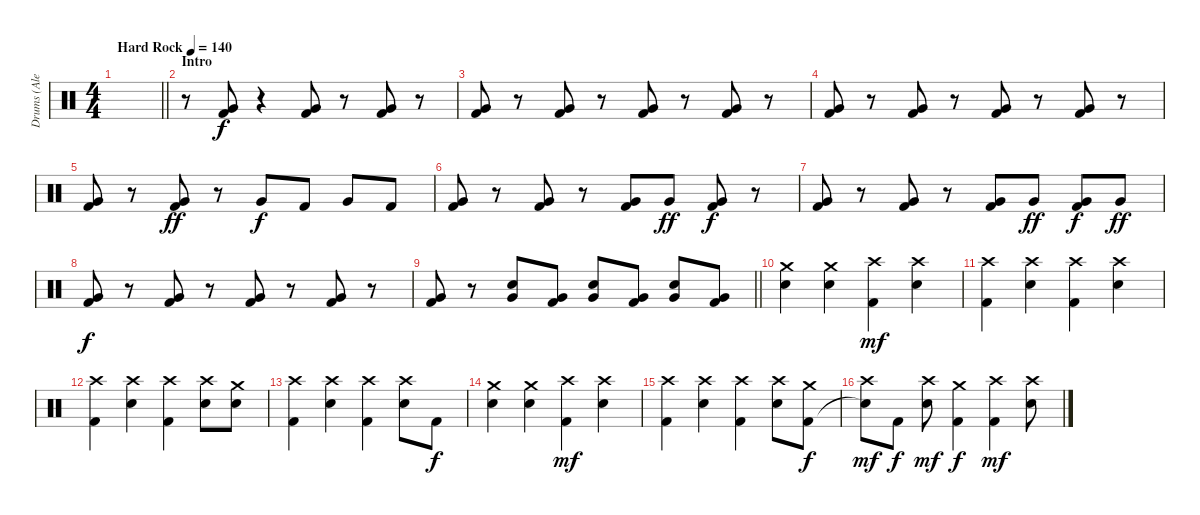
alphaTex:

\track ("Drums (Alex Van Halen)" "Drums (Ale") {instrument percussion}
\staff {score}
\articulation defaults
\ts (4 4)
\tempo (140 "Hard Rock")
\clef neutral
\barLineRight lightlight
\ks c
|
\section ("" "Intro")
r.8 ("Very Low Tom (hit)" "Kick (hit) 2").8 r.4 ("Very Low Tom (hit)" "Kick (hit) 2").8 r.8 ("Very Low Tom (hit)" "Kick (hit) 2").8 r.8 |
("Very Low Tom (hit)" "Kick (hit) 2").8 r.8 ("Very Low Tom (hit)" "Kick (hit) 2").8 r.8 ("Very Low Tom (hit)" "Kick (hit) 2").8 r.8 ("Very Low Tom (hit)" "Kick (hit) 2").8 r.8 |
("Very Low Tom (hit)" "Kick (hit) 2").8 r.8 ("Very Low Tom (hit)" "Kick (hit) 2").8 r.8 ("Very Low Tom (hit)" "Kick (hit) 2").8 r.8 ("Very Low Tom (hit)" "Kick (hit) 2").8 r.8 |
("Very Low Tom (hit)" "Kick (hit) 2").8 r.8 ("Very Low Tom (hit)" "Kick (hit) 2").8{dy ff} r.8 "Very Low Tom (hit)".8{dy f} "Kick (hit) 2".8 "Very Low Tom (hit)".8 "Kick (hit) 2".8 |
("Very Low Tom (hit)" "Kick (hit) 2").8 r.8 ("Very Low Tom (hit)" "Kick (hit) 2").8 r.8 ("Very Low Tom (hit)" "Kick (hit) 2").8 "Very Low Tom (hit)".8{dy ff} ("Very Low Tom (hit)" "Kick (hit) 2").8{dy f} r.8 |
("Very Low Tom (hit)" "Kick (hit) 2").8 r.8 ("Very Low Tom (hit)" "Kick (hit) 2").8 r.8 ("Very Low Tom (hit)" "Kick (hit) 2").8 "Very Low Tom (hit)".8{dy ff} ("Very Low Tom (hit)" "Kick (hit) 2").8{dy f} "Very Low Tom (hit)".8{dy ff} |
("Very Low Tom (hit)" "Kick (hit) 2").8{dy f} r.8 ("Very Low Tom (hit)" "Kick (hit) 2").8 r.8 ("Very Low Tom (hit)" "Kick (hit) 2").8 r.8 ("Very Low Tom (hit)" "Kick (hit) 2").8 r.8 |
\barLineRight lightlight
("Very Low Tom (hit)" "Kick (hit) 2").8 r.8 ("Very Low Tom (hit)" "Snare (hit) 2").8 ("Very Low Tom (hit)" "Kick (hit) 2").8 ("Very Low Tom (hit)" "Snare (hit) 2").8 ("Very Low Tom (hit)" "Kick (hit) 2").8 ("Very Low Tom (hit)" "Snare (hit) 2").8 ("Very Low Tom (hit)" "Kick (hit) 2").8 |
("Crash medium (hit)" "Snare (hit) 2").4 ("Crash medium (hit)" "Snare (hit) 2").4 ("Crash high (hit)" "Kick (hit) 2").4{dy mf} ("Crash high (hit)" "Snare (hit) 2").4 |
("Crash high (hit)" "Kick (hit) 2").4 ("Crash high (hit)" "Snare (hit) 2").4 ("Crash high (hit)" "Kick (hit) 2").4 ("Crash high (hit)" "Snare (hit) 2").4 |
("Crash high (hit)" "Kick (hit) 2").4 ("Crash high (hit)" "Snare (hit) 2").4 ("Crash high (hit)" "Kick (hit) 2").4 ("Crash high (hit)" "Snare (hit) 2").8 ("Crash medium (hit)" "Electric Snare (hit)").8 |
("Crash high (hit)" "Kick (hit) 2").4 ("Crash high (hit)" "Snare (hit) 2").4 ("Crash high (hit)" "Kick (hit) 2").4 ("Crash high (hit)" "Snare (hit) 2").8 "Kick (hit) 2".8{dy f} |
("Crash medium (hit)" "Snare (hit) 2").4 ("Crash medium (hit)" "Snare (hit) 2").4 ("Crash high (hit)" "Kick (hit) 2").4{dy mf} ("Crash high (hit)" "Snare (hit) 2").4 |
("Crash high (hit)" "Kick (hit) 2").4 ("Crash high (hit)" "Snare (hit) 2").4 ("Crash high (hit)" "Kick (hit) 2").4 ("Crash high (hit)" "Snare (hit) 2").8 ("Crash medium (hit)" "Kick (hit) 2").8{dy f} |
("Crash high (hit)" "Snare (hit)"{t}).8{dy mf} "Kick (hit) 2".8{dy f} ("Crash high (hit)" "Snare (hit) 2").8{dy mf} ("Crash medium (hit)" "Kick (hit) 2").4{dy f} ("Crash high (hit)" "Kick (hit) 2").4{dy mf} ("Crash high (hit)" "Snare (hit) 2").8
